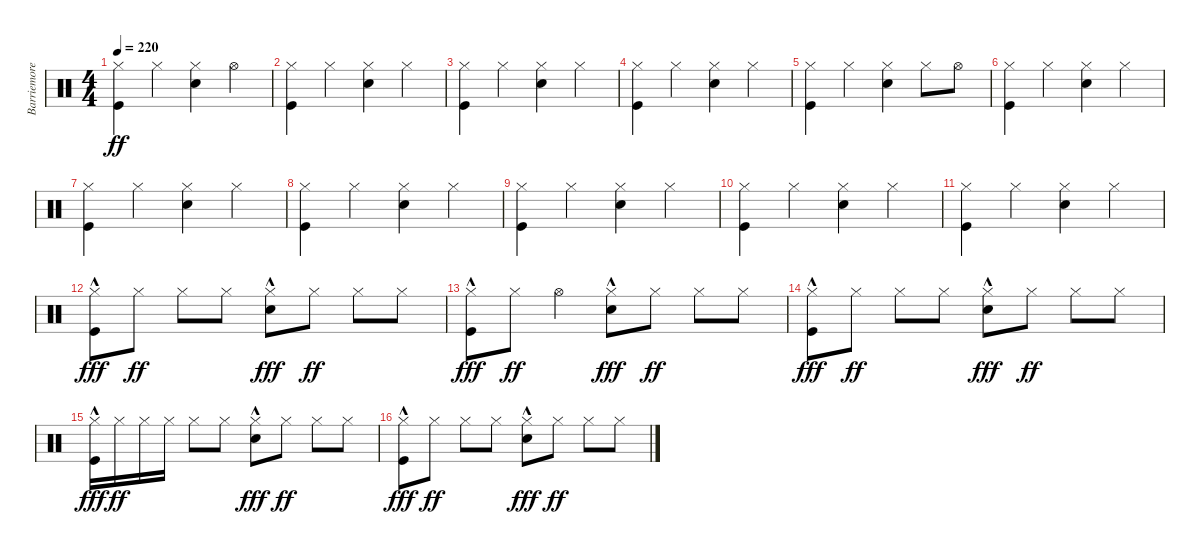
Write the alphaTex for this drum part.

\track ("Barriemore Barlow (Drums)" "Barriemore") {instrument percussion}
\staff {score}
\articulation defaults
\ts (4 4)
\tempo 220
\clef neutral
\ks c
("Kick (hit)" "Hi-Hat (closed)").4{dy ff} "Hi-Hat (closed)".4 ("Snare (hit) 2" "Hi-Hat (closed)").4 "Hi-Hat (open)".4 |
("Kick (hit)" "Hi-Hat (closed)").4 "Hi-Hat (closed)".4 ("Snare (hit) 2" "Hi-Hat (closed)").4 "Hi-Hat (closed)".4 |
("Kick (hit)" "Hi-Hat (closed)").4 "Hi-Hat (closed)".4 ("Snare (hit) 2" "Hi-Hat (closed)").4 "Hi-Hat (closed)".4 |
("Kick (hit)" "Hi-Hat (closed)").4 "Hi-Hat (closed)".4 ("Snare (hit) 2" "Hi-Hat (closed)").4 "Hi-Hat (closed)".4 |
("Kick (hit)" "Hi-Hat (closed)").4 "Hi-Hat (closed)".4 ("Snare (hit) 2" "Hi-Hat (closed)").4 "Hi-Hat (closed)".8 "Hi-Hat (open)".8 |
("Kick (hit)" "Hi-Hat (closed)").4 "Hi-Hat (closed)".4 ("Snare (hit) 2" "Hi-Hat (closed)").4 "Hi-Hat (closed)".4 |
("Kick (hit)" "Hi-Hat (closed)").4 "Hi-Hat (closed)".4 ("Snare (hit) 2" "Hi-Hat (closed)").4 "Hi-Hat (closed)".4 |
("Kick (hit)" "Hi-Hat (closed)").4 "Hi-Hat (closed)".4 ("Snare (hit) 2" "Hi-Hat (closed)").4 "Hi-Hat (closed)".4 |
("Kick (hit)" "Hi-Hat (closed)").4 "Hi-Hat (closed)".4 ("Snare (hit) 2" "Hi-Hat (closed)").4 "Hi-Hat (closed)".4 |
("Kick (hit)" "Hi-Hat (closed)").4 "Hi-Hat (closed)".4 ("Snare (hit) 2" "Hi-Hat (closed)").4 "Hi-Hat (closed)".4 |
("Kick (hit)" "Hi-Hat (closed)").4 "Hi-Hat (closed)".4 ("Snare (hit) 2" "Hi-Hat (closed)").4 "Hi-Hat (closed)".4 |
("Kick (hit)"{hac} "Hi-Hat (closed)").8{dy fff} "Hi-Hat (closed)".8{dy ff} "Hi-Hat (closed)".8 "Hi-Hat (closed)".8 ("Snare (hit) 2"{hac} "Hi-Hat (closed)").8{dy fff} "Hi-Hat (closed)".8{dy ff} "Hi-Hat (closed)".8 "Hi-Hat (closed)".8 |
("Kick (hit)"{hac} "Hi-Hat (closed)").8{dy fff} "Hi-Hat (closed)".8{dy ff} "Hi-Hat (open)".4 ("Snare (hit) 2"{hac} "Hi-Hat (closed)").8{dy fff} "Hi-Hat (closed)".8{dy ff} "Hi-Hat (closed)".8 "Hi-Hat (closed)".8 |
("Kick (hit)"{hac} "Hi-Hat (closed)").8{dy fff} "Hi-Hat (closed)".8{dy ff} "Hi-Hat (closed)".8 "Hi-Hat (closed)".8 ("Snare (hit) 2"{hac} "Hi-Hat (closed)").8{dy fff} "Hi-Hat (closed)".8{dy ff} "Hi-Hat (closed)".8 "Hi-Hat (closed)".8 |
("Kick (hit)"{hac} "Hi-Hat (closed)").16{dy fff} "Hi-Hat (closed)".16{dy ff} "Hi-Hat (closed)".16 "Hi-Hat (closed)".16 "Hi-Hat (closed)".8 "Hi-Hat (closed)".8 ("Snare (hit) 2"{hac} "Hi-Hat (closed)").8{dy fff} "Hi-Hat (closed)".8{dy ff} "Hi-Hat (closed)".8 "Hi-Hat (closed)".8 |
("Kick (hit)"{hac} "Hi-Hat (closed)").8{dy fff} "Hi-Hat (closed)".8{dy ff} "Hi-Hat (closed)".8 "Hi-Hat (closed)".8 ("Snare (hit) 2"{hac} "Hi-Hat (closed)").8{dy fff} "Hi-Hat (closed)".8{dy ff} "Hi-Hat (closed)".8 "Hi-Hat (closed)".8
